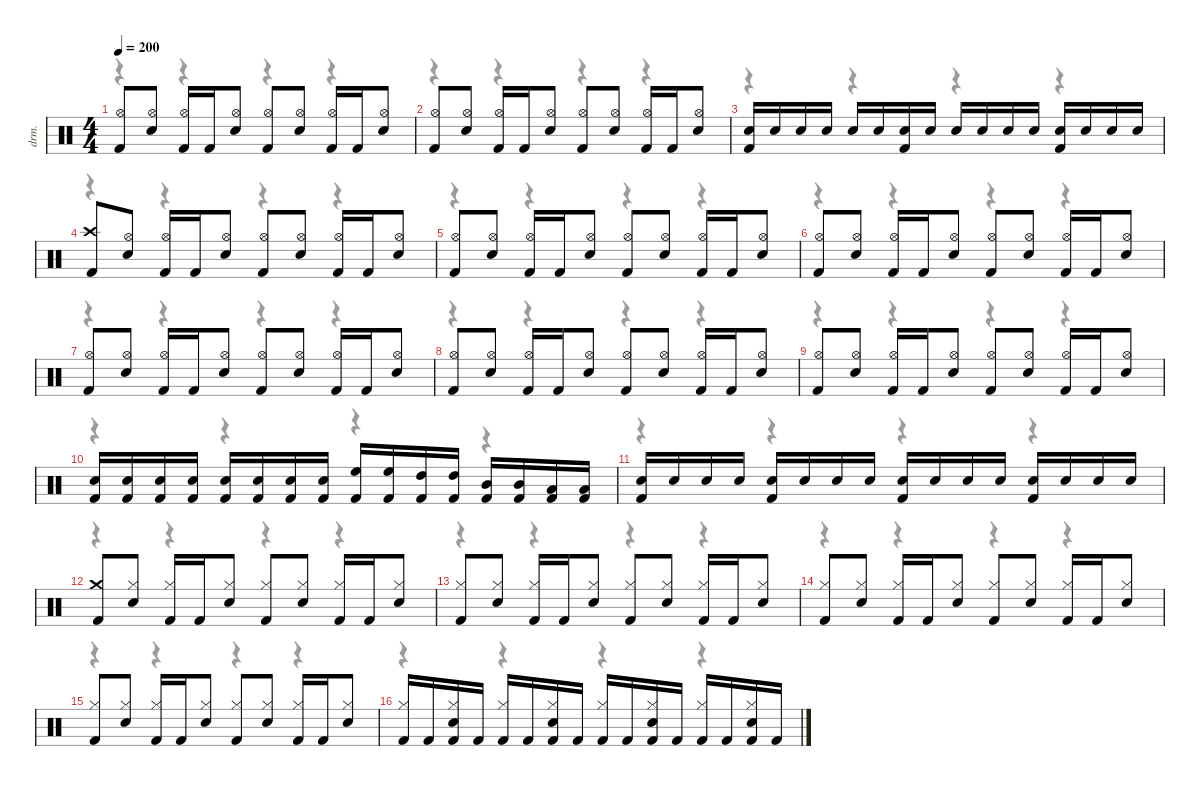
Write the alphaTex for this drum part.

\hideDynamics
\bracketExtendMode nobrackets
\otherSystemsTrackNameOrientation horizontal
\track ("Drums" "drm.") {instrument percussion}
\staff {score}
\articulation defaults
\voice
\ts (4 4)
\scale
0.980336
\tempo 200
\accidentals auto
\clef neutral
\ottava regular
\simile none
\ks c
("Kick (hit) 2" "Hi-Hat (open)").8{dy f} ("Snare (hit) 2" "Hi-Hat (open)").8 ("Kick (hit) 2" "Hi-Hat (open)").16 "Kick (hit) 2".16 ("Snare (hit) 2" "Hi-Hat (open)").8 ("Kick (hit) 2" "Hi-Hat (open)").8 ("Snare (hit) 2" "Hi-Hat (open)").8 ("Kick (hit) 2" "Hi-Hat (open)").16 "Kick (hit) 2".16 ("Snare (hit) 2" "Hi-Hat (open)").8 |
\scale
0.980336 ("Kick (hit) 2" "Hi-Hat (open)").8 ("Snare (hit) 2" "Hi-Hat (open)").8 ("Kick (hit) 2" "Hi-Hat (open)").16 "Kick (hit) 2".16 ("Snare (hit) 2" "Hi-Hat (open)").8 ("Kick (hit) 2" "Hi-Hat (open)").8 ("Snare (hit) 2" "Hi-Hat (open)").8 ("Kick (hit) 2" "Hi-Hat (open)").16 "Kick (hit) 2".16 ("Snare (hit) 2" "Hi-Hat (open)").8 |
\scale
0.995047 ("Kick (hit) 2" "Snare (hit) 2").16{dy ff} "Snare (hit) 2".16{dy f} "Snare (hit) 2".16 "Snare (hit) 2".16 "Snare (hit) 2".16 "Snare (hit) 2".16 ("Kick (hit) 2" "Snare (hit) 2").16{dy ff} "Snare (hit) 2".16{dy f} "Snare (hit) 2".16 "Snare (hit) 2".16 "Snare (hit) 2".16 "Snare (hit) 2".16 ("Kick (hit) 2" "Snare (hit) 2").16{dy ff} "Snare (hit) 2".16{dy f} "Snare (hit) 2".16 "Snare (hit) 2".16 |
\scale
0.980336 ("Kick (hit) 2" "Crash high (hit)").8 ("Snare (hit) 2" "Hi-Hat (open)").8 ("Kick (hit) 2" "Hi-Hat (open)").16 "Kick (hit) 2".16 ("Snare (hit) 2" "Hi-Hat (open)").8 ("Kick (hit) 2" "Hi-Hat (open)").8 ("Snare (hit) 2" "Hi-Hat (open)").8 ("Kick (hit) 2" "Hi-Hat (open)").16 "Kick (hit) 2".16 ("Snare (hit) 2" "Hi-Hat (open)").8 |
\scale
0.980336 ("Kick (hit) 2" "Hi-Hat (open)").8 ("Snare (hit) 2" "Hi-Hat (open)").8 ("Kick (hit) 2" "Hi-Hat (open)").16 "Kick (hit) 2".16 ("Snare (hit) 2" "Hi-Hat (open)").8 ("Kick (hit) 2" "Hi-Hat (open)").8 ("Snare (hit) 2" "Hi-Hat (open)").8 ("Kick (hit) 2" "Hi-Hat (open)").16 "Kick (hit) 2".16 ("Snare (hit) 2" "Hi-Hat (open)").8 |
\scale
1.06188 ("Kick (hit) 2" "Hi-Hat (open)").8 ("Snare (hit) 2" "Hi-Hat (open)").8 ("Kick (hit) 2" "Hi-Hat (open)").16 "Kick (hit) 2".16 ("Snare (hit) 2" "Hi-Hat (open)").8 ("Kick (hit) 2" "Hi-Hat (open)").8 ("Snare (hit) 2" "Hi-Hat (open)").8 ("Kick (hit) 2" "Hi-Hat (open)").16 "Kick (hit) 2".16 ("Snare (hit) 2" "Hi-Hat (open)").8 |
\scale
0.986122 ("Kick (hit) 2" "Hi-Hat (open)").8 ("Snare (hit) 2" "Hi-Hat (open)").8 ("Kick (hit) 2" "Hi-Hat (open)").16 "Kick (hit) 2".16 ("Snare (hit) 2" "Hi-Hat (open)").8 ("Kick (hit) 2" "Hi-Hat (open)").8 ("Snare (hit) 2" "Hi-Hat (open)").8 ("Kick (hit) 2" "Hi-Hat (open)").16 "Kick (hit) 2".16 ("Snare (hit) 2" "Hi-Hat (open)").8 |
\section ("" "")
\scale
0.988084 ("Kick (hit) 2" "Hi-Hat (open)").8 ("Snare (hit) 2" "Hi-Hat (open)").8 ("Kick (hit) 2" "Hi-Hat (open)").16 "Kick (hit) 2".16 ("Snare (hit) 2" "Hi-Hat (open)").8 ("Kick (hit) 2" "Hi-Hat (open)").8 ("Snare (hit) 2" "Hi-Hat (open)").8 ("Kick (hit) 2" "Hi-Hat (open)").16 "Kick (hit) 2".16 ("Snare (hit) 2" "Hi-Hat (open)").8 |
\scale
0.988084 ("Kick (hit) 2" "Hi-Hat (open)").8 ("Snare (hit) 2" "Hi-Hat (open)").8 ("Kick (hit) 2" "Hi-Hat (open)").16 "Kick (hit) 2".16 ("Snare (hit) 2" "Hi-Hat (open)").8 ("Kick (hit) 2" "Hi-Hat (open)").8 ("Snare (hit) 2" "Hi-Hat (open)").8 ("Kick (hit) 2" "Hi-Hat (open)").16 "Kick (hit) 2".16 ("Snare (hit) 2" "Hi-Hat (open)").8 |
\scale
0.975825 ("Kick (hit) 2" "Snare (hit) 2").16 ("Kick (hit) 2" "Snare (hit) 2").16 ("Kick (hit) 2" "Snare (hit) 2").16 ("Kick (hit) 2" "Snare (hit) 2").16 ("Kick (hit) 2" "Snare (hit) 2").16 ("Kick (hit) 2" "Snare (hit) 2").16 ("Kick (hit) 2" "Snare (hit) 2").16 ("Kick (hit) 2" "Snare (hit) 2").16 ("Kick (hit) 2" "High Floor Tom (hit)").16 ("Kick (hit) 2" "High Floor Tom (hit)").16 ("Kick (hit) 2" "High Tom (hit)").16 ("Kick (hit) 2" "High Tom (hit)").16 ("Kick (hit) 2" "Mid Tom (hit)").16 ("Kick (hit) 2" "Mid Tom (hit)").16 ("Kick (hit) 2" "Low Tom (hit)").16 ("Kick (hit) 2" "Low Tom (hit)").16 |
\scale
1.09391 ("Kick (hit) 2" "Snare (hit) 2").16{dy ff} "Snare (hit) 2".16{dy f} "Snare (hit) 2".16 "Snare (hit) 2".16 ("Kick (hit) 2" "Snare (hit) 2").16{dy ff} "Snare (hit) 2".16{dy f} "Snare (hit) 2".16 "Snare (hit) 2".16 ("Kick (hit) 2" "Snare (hit) 2").16{dy ff} "Snare (hit) 2".16{dy f} "Snare (hit) 2".16 "Snare (hit) 2".16 ("Kick (hit) 2" "Snare (hit) 2").16{dy ff} "Snare (hit) 2".16{dy f} "Snare (hit) 2".16 "Snare (hit) 2".16 |
\section ("" "")
\scale
0.978277 ("Kick (hit) 2" "Crash medium (hit)").8 ("Snare (hit) 2" "Hi-Hat (closed)").8 ("Kick (hit) 2" "Hi-Hat (closed)").16 "Kick (hit) 2".16 ("Snare (hit) 2" "Hi-Hat (closed)").8 ("Kick (hit) 2" "Hi-Hat (closed)").8 ("Snare (hit) 2" "Hi-Hat (closed)").8 ("Kick (hit) 2" "Hi-Hat (closed)").16 "Kick (hit) 2".16 ("Snare (hit) 2" "Hi-Hat (closed)").8 |
\scale
0.978277 ("Kick (hit) 2" "Hi-Hat (closed)").8 ("Snare (hit) 2" "Hi-Hat (closed)").8 ("Kick (hit) 2" "Hi-Hat (closed)").16 "Kick (hit) 2".16 ("Snare (hit) 2" "Hi-Hat (closed)").8 ("Kick (hit) 2" "Hi-Hat (closed)").8 ("Snare (hit) 2" "Hi-Hat (closed)").8 ("Kick (hit) 2" "Hi-Hat (closed)").16 "Kick (hit) 2".16 ("Snare (hit) 2" "Hi-Hat (closed)").8 |
\scale
0.978277 ("Kick (hit) 2" "Hi-Hat (closed)").8 ("Snare (hit) 2" "Hi-Hat (closed)").8 ("Kick (hit) 2" "Hi-Hat (closed)").16 "Kick (hit) 2".16 ("Snare (hit) 2" "Hi-Hat (closed)").8 ("Kick (hit) 2" "Hi-Hat (closed)").8 ("Snare (hit) 2" "Hi-Hat (closed)").8 ("Kick (hit) 2" "Hi-Hat (closed)").16 "Kick (hit) 2".16 ("Snare (hit) 2" "Hi-Hat (closed)").8 |
\scale
0.992988 ("Kick (hit) 2" "Hi-Hat (closed)").8 ("Snare (hit) 2" "Hi-Hat (closed)").8 ("Kick (hit) 2" "Hi-Hat (closed)").16 "Kick (hit) 2".16 ("Snare (hit) 2" "Hi-Hat (closed)").8 ("Kick (hit) 2" "Hi-Hat (closed)").8 ("Snare (hit) 2" "Hi-Hat (closed)").8 ("Kick (hit) 2" "Hi-Hat (closed)").16 "Kick (hit) 2".16 ("Snare (hit) 2" "Hi-Hat (closed)").8 |
\scale
0.978277 ("Kick (hit) 2" "Hi-Hat (closed)").16 "Kick (hit) 2".16 ("Kick (hit) 2" "Snare (hit) 2" "Hi-Hat (closed)").16 "Kick (hit) 2".16 ("Kick (hit) 2" "Hi-Hat (closed)").16 "Kick (hit) 2".16 ("Kick (hit) 2" "Snare (hit) 2" "Hi-Hat (closed)").16 "Kick (hit) 2".16 ("Kick (hit) 2" "Hi-Hat (closed)").16 "Kick (hit) 2".16 ("Kick (hit) 2" "Snare (hit) 2" "Hi-Hat (closed)").16 "Kick (hit) 2".16 ("Kick (hit) 2" "Hi-Hat (closed)").16 "Kick (hit) 2".16 ("Kick (hit) 2" "Snare (hit) 2" "Hi-Hat (closed)").16 "Kick (hit) 2".16
\voice
\clef neutral
\ottava regular
\simile none
\ks c
r.4{dy mf} r.4 r.4 r.4 |
r.4 r.4 r.4 r.4 |
r.4 r.4 r.4 r.4 |
r.4 r.4 r.4 r.4 |
r.4 r.4 r.4 r.4 |
r.4 r.4 r.4 r.4 |
r.4 r.4 r.4 r.4 |
r.4 r.4 r.4 r.4 |
r.4 r.4 r.4 r.4 |
r.4 r.4 r.4 r.4 |
r.4 r.4 r.4 r.4 |
r.4 r.4 r.4 r.4 |
r.4 r.4 r.4 r.4 |
r.4 r.4 r.4 r.4 |
r.4 r.4 r.4 r.4 |
r.4 r.4 r.4 r.4
